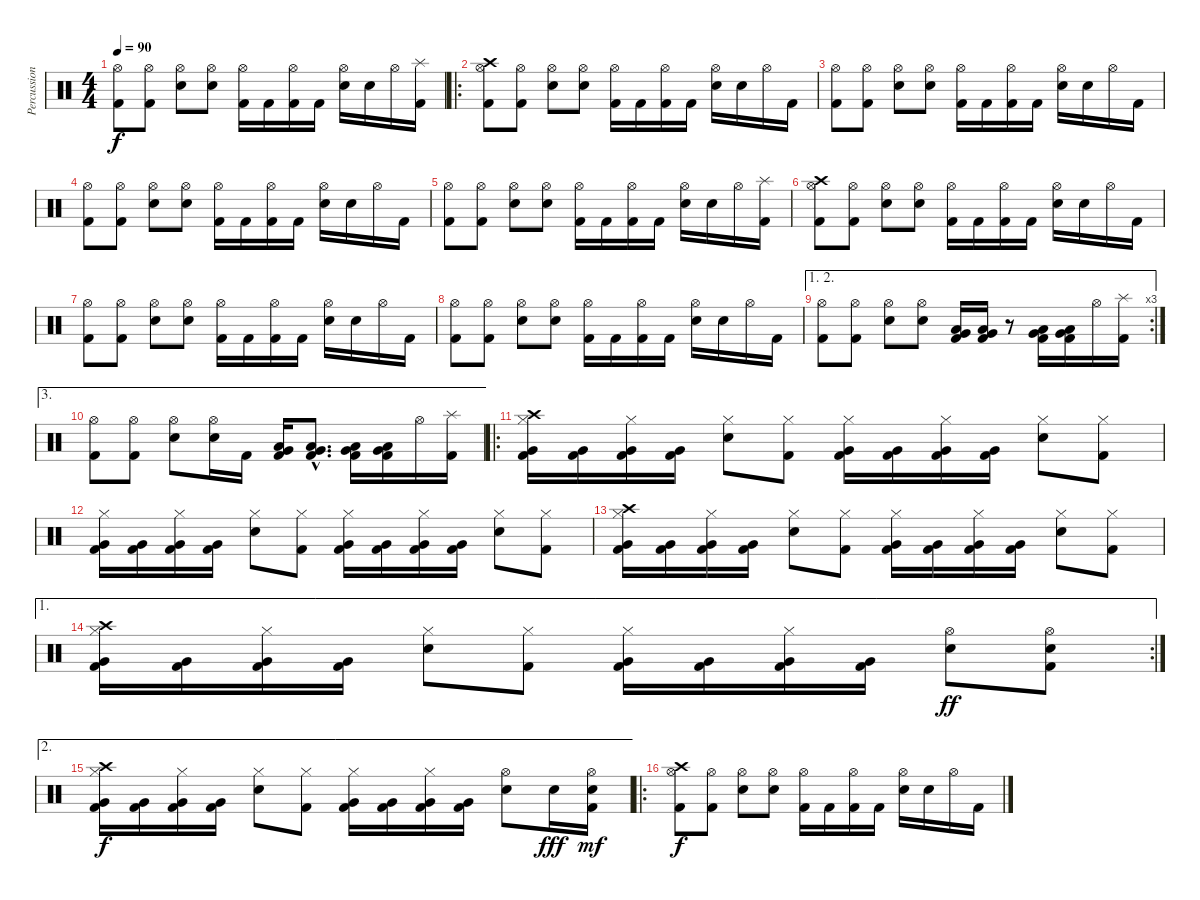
\track ("Percussion" "Percussion") {instrument percussion}
\staff {score}
\articulation defaults
\ts (4 4)
\tempo 90
\clef neutral
\ks c
("Hi-Hat (open)" "Kick (hit) 2").8{dy f} ("Hi-Hat (open)" "Kick (hit) 2").8 ("Hi-Hat (open)" "Electric Snare (hit)").8 ("Hi-Hat (open)" "Electric Snare (hit)").8 ("Hi-Hat (open)" "Kick (hit) 2").16 "Kick (hit) 2".16 ("Hi-Hat (open)" "Kick (hit) 2").16 "Kick (hit) 2".16 ("Hi-Hat (open)" "Electric Snare (hit)").16 "Electric Snare (hit)".16 "Hi-Hat (open)".16 ("Splash (hit)" "Kick (hit) 2").16 |
\ro
("Crash high (hit)" "Hi-Hat (open)" "Kick (hit) 2").8 ("Hi-Hat (open)" "Kick (hit) 2").8 ("Hi-Hat (open)" "Electric Snare (hit)").8 ("Hi-Hat (open)" "Electric Snare (hit)").8 ("Hi-Hat (open)" "Kick (hit) 2").16 "Kick (hit) 2".16 ("Hi-Hat (open)" "Kick (hit) 2").16 "Kick (hit) 2".16 ("Hi-Hat (open)" "Electric Snare (hit)").16 "Electric Snare (hit)".16 "Hi-Hat (open)".16 "Kick (hit) 2".16 |
("Hi-Hat (open)" "Kick (hit) 2").8 ("Hi-Hat (open)" "Kick (hit) 2").8 ("Hi-Hat (open)" "Electric Snare (hit)").8 ("Hi-Hat (open)" "Electric Snare (hit)").8 ("Hi-Hat (open)" "Kick (hit) 2").16 "Kick (hit) 2".16 ("Hi-Hat (open)" "Kick (hit) 2").16 "Kick (hit) 2".16 ("Hi-Hat (open)" "Electric Snare (hit)").16 "Electric Snare (hit)".16 "Hi-Hat (open)".16 "Kick (hit) 2".16 |
("Hi-Hat (open)" "Kick (hit) 2").8 ("Hi-Hat (open)" "Kick (hit) 2").8 ("Hi-Hat (open)" "Electric Snare (hit)").8 ("Hi-Hat (open)" "Electric Snare (hit)").8 ("Hi-Hat (open)" "Kick (hit) 2").16 "Kick (hit) 2".16 ("Hi-Hat (open)" "Kick (hit) 2").16 "Kick (hit) 2".16 ("Hi-Hat (open)" "Electric Snare (hit)").16 "Electric Snare (hit)".16 "Hi-Hat (open)".16 "Kick (hit) 2".16 |
("Hi-Hat (open)" "Kick (hit) 2").8 ("Hi-Hat (open)" "Kick (hit) 2").8 ("Hi-Hat (open)" "Electric Snare (hit)").8 ("Hi-Hat (open)" "Electric Snare (hit)").8 ("Hi-Hat (open)" "Kick (hit) 2").16 "Kick (hit) 2".16 ("Hi-Hat (open)" "Kick (hit) 2").16 "Kick (hit) 2".16 ("Hi-Hat (open)" "Electric Snare (hit)").16 "Electric Snare (hit)".16 "Hi-Hat (open)".16 ("Splash (hit)" "Kick (hit) 2").16 |
("Crash high (hit)" "Hi-Hat (open)" "Kick (hit) 2").8 ("Hi-Hat (open)" "Kick (hit) 2").8 ("Hi-Hat (open)" "Electric Snare (hit)").8 ("Hi-Hat (open)" "Electric Snare (hit)").8 ("Hi-Hat (open)" "Kick (hit) 2").16 "Kick (hit) 2".16 ("Hi-Hat (open)" "Kick (hit) 2").16 "Kick (hit) 2".16 ("Hi-Hat (open)" "Electric Snare (hit)").16 "Electric Snare (hit)".16 "Hi-Hat (open)".16 "Kick (hit) 2".16 |
("Hi-Hat (open)" "Kick (hit) 2").8 ("Hi-Hat (open)" "Kick (hit) 2").8 ("Hi-Hat (open)" "Electric Snare (hit)").8 ("Hi-Hat (open)" "Electric Snare (hit)").8 ("Hi-Hat (open)" "Kick (hit) 2").16 "Kick (hit) 2".16 ("Hi-Hat (open)" "Kick (hit) 2").16 "Kick (hit) 2".16 ("Hi-Hat (open)" "Electric Snare (hit)").16 "Electric Snare (hit)".16 "Hi-Hat (open)".16 "Kick (hit) 2".16 |
("Hi-Hat (open)" "Kick (hit) 2").8 ("Hi-Hat (open)" "Kick (hit) 2").8 ("Hi-Hat (open)" "Electric Snare (hit)").8 ("Hi-Hat (open)" "Electric Snare (hit)").8 ("Hi-Hat (open)" "Kick (hit) 2").16 "Kick (hit) 2".16 ("Hi-Hat (open)" "Kick (hit) 2").16 "Kick (hit) 2".16 ("Hi-Hat (open)" "Electric Snare (hit)").16 "Electric Snare (hit)".16 "Hi-Hat (open)".16 "Kick (hit) 2".16 |
\ae (1 2)
\rc 3
("Hi-Hat (open)" "Kick (hit) 2").8 ("Hi-Hat (open)" "Kick (hit) 2").8 ("Hi-Hat (open)" "Electric Snare (hit)").8 ("Hi-Hat (open)" "Electric Snare (hit)").8 ("Very Low Tom (hit)" "Low Tom (hit)" "Kick (hit) 2").16 ("Very Low Tom (hit)" "Low Tom (hit)" "Kick (hit) 2").16 r.8 ("Low Floor Tom (hit)" "Very Low Tom (hit)" "Kick (hit) 2").16 ("Low Floor Tom (hit)" "Very Low Tom (hit)" "Kick (hit) 2").16 "Hi-Hat (open)".16 ("Splash (hit)" "Kick (hit) 2").16 |
\ae 3
("Hi-Hat (open)" "Kick (hit) 2").8 ("Hi-Hat (open)" "Kick (hit) 2").8 ("Hi-Hat (open)" "Electric Snare (hit)").8 ("Hi-Hat (open)" "Electric Snare (hit)").16 "Kick (hit) 2".16 ("Very Low Tom (hit)" "Low Tom (hit)" "Kick (hit) 2").16 ("Very Low Tom (hit)"{hac} "Low Tom (hit)"{hac} "Kick (hit) 2"{hac}).8{d} ("Low Floor Tom (hit)" "Very Low Tom (hit)" "Kick (hit) 2").16 ("Low Floor Tom (hit)" "Very Low Tom (hit)" "Kick (hit) 2").16 "Hi-Hat (open)".16 ("Splash (hit)" "Kick (hit) 2").16 |
\ro
("Crash high (hit)" "Hi-Hat (closed)" "Very Low Tom (hit)" "Kick (hit) 2").16 ("Very Low Tom (hit)" "Kick (hit) 2").16 ("Hi-Hat (closed)" "Very Low Tom (hit)" "Kick (hit) 2").16 ("Very Low Tom (hit)" "Kick (hit) 2").16 ("Hi-Hat (closed)" "Electric Snare (hit)").8 ("Hi-Hat (closed)" "Kick (hit) 2").8 ("Hi-Hat (closed)" "Very Low Tom (hit)" "Kick (hit) 2").16 ("Very Low Tom (hit)" "Kick (hit) 2").16 ("Hi-Hat (closed)" "Very Low Tom (hit)" "Kick (hit) 2").16 ("Very Low Tom (hit)" "Kick (hit) 2").16 ("Hi-Hat (closed)" "Electric Snare (hit)").8 ("Hi-Hat (closed)" "Kick (hit) 2").8 |
("Hi-Hat (closed)" "Very Low Tom (hit)" "Kick (hit) 2").16 ("Very Low Tom (hit)" "Kick (hit) 2").16 ("Hi-Hat (closed)" "Very Low Tom (hit)" "Kick (hit) 2").16 ("Very Low Tom (hit)" "Kick (hit) 2").16 ("Hi-Hat (closed)" "Electric Snare (hit)").8 ("Hi-Hat (closed)" "Kick (hit) 2").8 ("Hi-Hat (closed)" "Very Low Tom (hit)" "Kick (hit) 2").16 ("Very Low Tom (hit)" "Kick (hit) 2").16 ("Hi-Hat (closed)" "Very Low Tom (hit)" "Kick (hit) 2").16 ("Very Low Tom (hit)" "Kick (hit) 2").16 ("Hi-Hat (closed)" "Electric Snare (hit)").8 ("Hi-Hat (closed)" "Kick (hit) 2").8 |
("Crash high (hit)" "Hi-Hat (closed)" "Very Low Tom (hit)" "Kick (hit) 2").16 ("Very Low Tom (hit)" "Kick (hit) 2").16 ("Hi-Hat (closed)" "Very Low Tom (hit)" "Kick (hit) 2").16 ("Very Low Tom (hit)" "Kick (hit) 2").16 ("Hi-Hat (closed)" "Electric Snare (hit)").8 ("Hi-Hat (closed)" "Kick (hit) 2").8 ("Hi-Hat (closed)" "Very Low Tom (hit)" "Kick (hit) 2").16 ("Very Low Tom (hit)" "Kick (hit) 2").16 ("Hi-Hat (closed)" "Very Low Tom (hit)" "Kick (hit) 2").16 ("Very Low Tom (hit)" "Kick (hit) 2").16 ("Hi-Hat (closed)" "Electric Snare (hit)").8 ("Hi-Hat (closed)" "Kick (hit) 2").8 |
\ae 1
\rc 2
("Crash high (hit)" "Hi-Hat (closed)" "Very Low Tom (hit)" "Kick (hit) 2").16 ("Very Low Tom (hit)" "Kick (hit) 2").16 ("Hi-Hat (closed)" "Very Low Tom (hit)" "Kick (hit) 2").16 ("Very Low Tom (hit)" "Kick (hit) 2").16 ("Hi-Hat (closed)" "Electric Snare (hit)").8 ("Hi-Hat (closed)" "Kick (hit) 2").8 ("Hi-Hat (closed)" "Very Low Tom (hit)" "Kick (hit) 2").16 ("Very Low Tom (hit)" "Kick (hit) 2").16 ("Hi-Hat (closed)" "Very Low Tom (hit)" "Kick (hit) 2").16 ("Very Low Tom (hit)" "Kick (hit) 2").16 ("Hi-Hat (open)" "Electric Snare (hit)").8{dy ff} ("Hi-Hat (open)" "Electric Snare (hit)" "Kick (hit) 2").8 |
\ae 2
("Crash high (hit)" "Hi-Hat (closed)" "Very Low Tom (hit)" "Kick (hit) 2").16{dy f} ("Very Low Tom (hit)" "Kick (hit) 2").16 ("Hi-Hat (closed)" "Very Low Tom (hit)" "Kick (hit) 2").16 ("Very Low Tom (hit)" "Kick (hit) 2").16 ("Hi-Hat (closed)" "Electric Snare (hit)").8 ("Hi-Hat (closed)" "Kick (hit) 2").8 ("Hi-Hat (closed)" "Very Low Tom (hit)" "Kick (hit) 2").16 ("Very Low Tom (hit)" "Kick (hit) 2").16 ("Hi-Hat (closed)" "Very Low Tom (hit)" "Kick (hit) 2").16 ("Very Low Tom (hit)" "Kick (hit) 2").16 ("Hi-Hat (open)" "Electric Snare (hit)").8 "Electric Snare (hit)".16{dy fff} ("Hi-Hat (open)" "Electric Snare (hit)" "Kick (hit) 2").16{dy mf} |
\ro
("Crash high (hit)" "Hi-Hat (open)" "Kick (hit) 2").8{dy f} ("Hi-Hat (open)" "Kick (hit) 2").8 ("Hi-Hat (open)" "Electric Snare (hit)").8 ("Hi-Hat (open)" "Electric Snare (hit)").8 ("Hi-Hat (open)" "Kick (hit) 2").16 "Kick (hit) 2".16 ("Hi-Hat (open)" "Kick (hit) 2").16 "Kick (hit) 2".16 ("Hi-Hat (open)" "Electric Snare (hit)").16 "Electric Snare (hit)".16 "Hi-Hat (open)".16 "Kick (hit) 2".16
